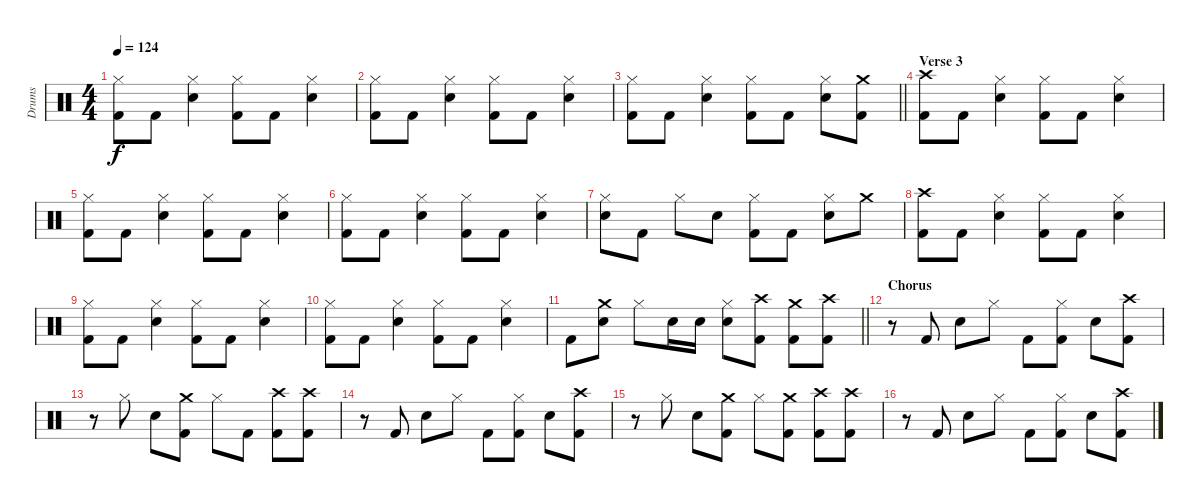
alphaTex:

\track ("Drums" "Drums") {instrument percussion}
\staff {score}
\articulation defaults
\ts (4 4)
\tempo 124
\clef neutral
\ks c
("Kick (hit) 2" "Hi-Hat (closed)").8{dy f} "Kick (hit) 2".8 ("Snare (hit) 2" "Hi-Hat (closed)").4 ("Kick (hit) 2" "Hi-Hat (closed)").8 "Kick (hit) 2".8 ("Snare (hit) 2" "Hi-Hat (closed)").4 |
("Kick (hit) 2" "Hi-Hat (closed)").8 "Kick (hit) 2".8 ("Snare (hit) 2" "Hi-Hat (closed)").4 ("Kick (hit) 2" "Hi-Hat (closed)").8 "Kick (hit) 2".8 ("Snare (hit) 2" "Hi-Hat (closed)").4 |
\barLineRight lightlight
("Kick (hit) 2" "Hi-Hat (closed)").8 "Kick (hit) 2".8 ("Snare (hit) 2" "Hi-Hat (closed)").4 ("Kick (hit) 2" "Hi-Hat (closed)").8 "Kick (hit) 2".8 ("Snare (hit) 2" "Hi-Hat (closed)").8 ("Kick (hit) 2" "Crash medium (hit)").8 |
\section ("" "Verse 3")
("Kick (hit) 2" "Crash high (hit)").8 "Kick (hit) 2".8 ("Snare (hit) 2" "Hi-Hat (closed)").4 ("Kick (hit) 2" "Hi-Hat (closed)").8 "Kick (hit) 2".8 ("Snare (hit) 2" "Hi-Hat (closed)").4 |
("Kick (hit) 2" "Hi-Hat (closed)").8 "Kick (hit) 2".8 ("Snare (hit) 2" "Hi-Hat (closed)").4 ("Kick (hit) 2" "Hi-Hat (closed)").8 "Kick (hit) 2".8 ("Snare (hit) 2" "Hi-Hat (closed)").4 |
("Kick (hit) 2" "Hi-Hat (closed)").8 "Kick (hit) 2".8 ("Snare (hit) 2" "Hi-Hat (closed)").4 ("Kick (hit) 2" "Hi-Hat (closed)").8 "Kick (hit) 2".8 ("Snare (hit) 2" "Hi-Hat (closed)").4 |
("Snare (hit) 2" "Hi-Hat (closed)").8 "Kick (hit) 2".8 "Hi-Hat (closed)".8 "Snare (hit) 2".8 ("Kick (hit) 2" "Hi-Hat (closed)").8 "Kick (hit) 2".8 ("Snare (hit) 2" "Hi-Hat (closed)").8 "Crash medium (hit)".8 |
("Kick (hit) 2" "Crash high (hit)").8 "Kick (hit) 2".8 ("Snare (hit) 2" "Hi-Hat (closed)").4 ("Kick (hit) 2" "Hi-Hat (closed)").8 "Kick (hit) 2".8 ("Snare (hit) 2" "Hi-Hat (closed)").4 |
("Kick (hit) 2" "Hi-Hat (closed)").8 "Kick (hit) 2".8 ("Snare (hit) 2" "Hi-Hat (closed)").4 ("Kick (hit) 2" "Hi-Hat (closed)").8 "Kick (hit) 2".8 ("Snare (hit) 2" "Hi-Hat (closed)").4 |
("Kick (hit) 2" "Hi-Hat (closed)").8 "Kick (hit) 2".8 ("Snare (hit) 2" "Hi-Hat (closed)").4 ("Kick (hit) 2" "Hi-Hat (closed)").8 "Kick (hit) 2".8 ("Snare (hit) 2" "Hi-Hat (closed)").4 |
\barLineRight lightlight "Kick (hit) 2".8
("Snare (hit) 2" "Crash medium (hit)").8 "Hi-Hat (closed)".8 "Snare (hit) 2".16 "Snare (hit) 2".16 ("Snare (hit) 2" "Hi-Hat (closed)").8 ("Kick (hit) 2" "Crash high (hit)").8 ("Kick (hit) 2" "Crash medium (hit)").8 ("Kick (hit) 2" "Crash high (hit)").8 |
\section ("" "Chorus")
r.8 "Kick (hit) 2".8 "Snare (hit) 2".8 "Hi-Hat (closed)".8 "Kick (hit) 2".8 ("Kick (hit) 2" "Hi-Hat (closed)").8 "Snare (hit) 2".8 ("Kick (hit) 2" "Crash high (hit)").8 |
r.8 "Hi-Hat (closed)".8 "Snare (hit) 2".8 ("Kick (hit) 2" "Crash medium (hit)").8 "Hi-Hat (closed)".8 "Kick (hit) 2".8 ("Kick (hit) 2" "Crash high (hit)").8 ("Kick (hit) 2" "Crash high (hit)").8 |
r.8 "Kick (hit) 2".8 "Snare (hit) 2".8 "Hi-Hat (closed)".8 "Kick (hit) 2".8 ("Kick (hit) 2" "Hi-Hat (closed)").8 "Snare (hit) 2".8 ("Kick (hit) 2" "Crash high (hit)").8 |
r.8 "Hi-Hat (closed)".8 "Snare (hit) 2".8 ("Kick (hit) 2" "Crash medium (hit)").8 "Hi-Hat (closed)".8 ("Kick (hit) 2" "Crash medium (hit)").8 ("Kick (hit) 2" "Crash high (hit)").8 ("Kick (hit) 2" "Crash high (hit)").8 |
r.8 "Kick (hit) 2".8 "Snare (hit) 2".8 "Hi-Hat (closed)".8 "Kick (hit) 2".8 ("Kick (hit) 2" "Hi-Hat (closed)").8 "Snare (hit) 2".8 ("Kick (hit) 2" "Crash high (hit)").8
